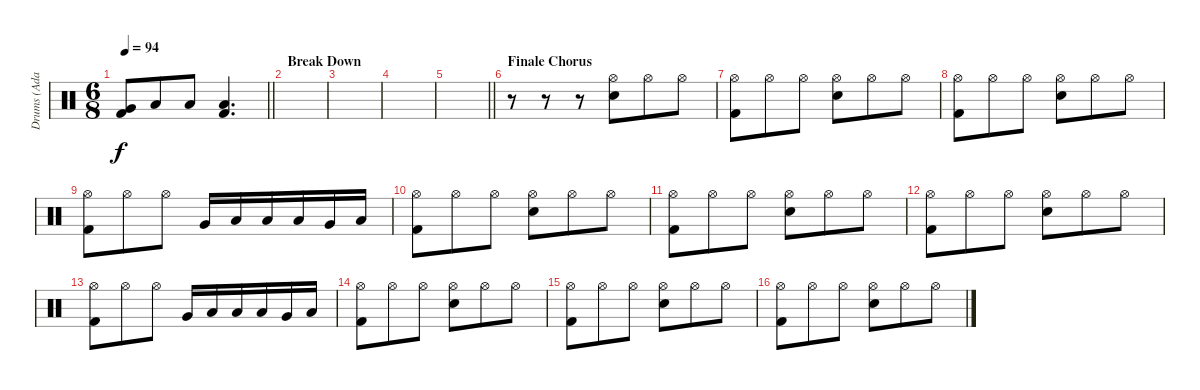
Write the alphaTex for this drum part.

\track ("Drums (Adam)" "Drums (Ada") {instrument percussion}
\staff {score}
\articulation defaults
\ts (6 8)
\tempo 94
\clef neutral
\barLineRight lightlight
\ks c
("Very Low Tom (hit)" "Kick (hit) 2").8{dy f} "Low Floor Tom (hit)".8 "Low Tom (hit)".8 ("Low Floor Tom (hit)" "Kick (hit) 2").4{d} |
\section ("" "Break Down")
|
|
|
\barLineRight lightlight
|
\section ("" "Finale Chorus")
r.8 r.8 r.8 ("Hi-Hat (open)" "Snare (hit) 2").8 "Hi-Hat (open)".8 "Hi-Hat (open)".8 |
("Hi-Hat (open)" "Kick (hit) 2").8 "Hi-Hat (open)".8 "Hi-Hat (open)".8 ("Hi-Hat (open)" "Snare (hit) 2").8 "Hi-Hat (open)".8 "Hi-Hat (open)".8 |
("Hi-Hat (open)" "Kick (hit) 2").8 "Hi-Hat (open)".8 "Hi-Hat (open)".8 ("Hi-Hat (open)" "Snare (hit) 2").8 "Hi-Hat (open)".8 "Hi-Hat (open)".8 |
("Hi-Hat (open)" "Kick (hit) 2").8 "Hi-Hat (open)".8 "Hi-Hat (open)".8 "Very Low Tom (hit)".16 "Low Floor Tom (hit)".16 "Low Tom (hit)".16 "Low Floor Tom (hit)".16 "Very Low Tom (hit)".16 "Low Floor Tom (hit)".16 |
("Hi-Hat (open)" "Kick (hit) 2").8 "Hi-Hat (open)".8 "Hi-Hat (open)".8 ("Hi-Hat (open)" "Snare (hit) 2").8 "Hi-Hat (open)".8 "Hi-Hat (open)".8 |
("Hi-Hat (open)" "Kick (hit) 2").8 "Hi-Hat (open)".8 "Hi-Hat (open)".8 ("Hi-Hat (open)" "Snare (hit) 2").8 "Hi-Hat (open)".8 "Hi-Hat (open)".8 |
("Hi-Hat (open)" "Kick (hit) 2").8 "Hi-Hat (open)".8 "Hi-Hat (open)".8 ("Hi-Hat (open)" "Snare (hit) 2").8 "Hi-Hat (open)".8 "Hi-Hat (open)".8 |
("Hi-Hat (open)" "Kick (hit) 2").8 "Hi-Hat (open)".8 "Hi-Hat (open)".8 "Very Low Tom (hit)".16 "Low Floor Tom (hit)".16 "Low Tom (hit)".16 "Low Floor Tom (hit)".16 "Very Low Tom (hit)".16 "Low Floor Tom (hit)".16 |
("Hi-Hat (open)" "Kick (hit) 2").8 "Hi-Hat (open)".8 "Hi-Hat (open)".8 ("Hi-Hat (open)" "Snare (hit) 2").8 "Hi-Hat (open)".8 "Hi-Hat (open)".8 |
("Hi-Hat (open)" "Kick (hit) 2").8 "Hi-Hat (open)".8 "Hi-Hat (open)".8 ("Hi-Hat (open)" "Snare (hit) 2").8 "Hi-Hat (open)".8 "Hi-Hat (open)".8 |
("Hi-Hat (open)" "Kick (hit) 2").8 "Hi-Hat (open)".8 "Hi-Hat (open)".8 ("Hi-Hat (open)" "Snare (hit) 2").8 "Hi-Hat (open)".8 "Hi-Hat (open)".8
